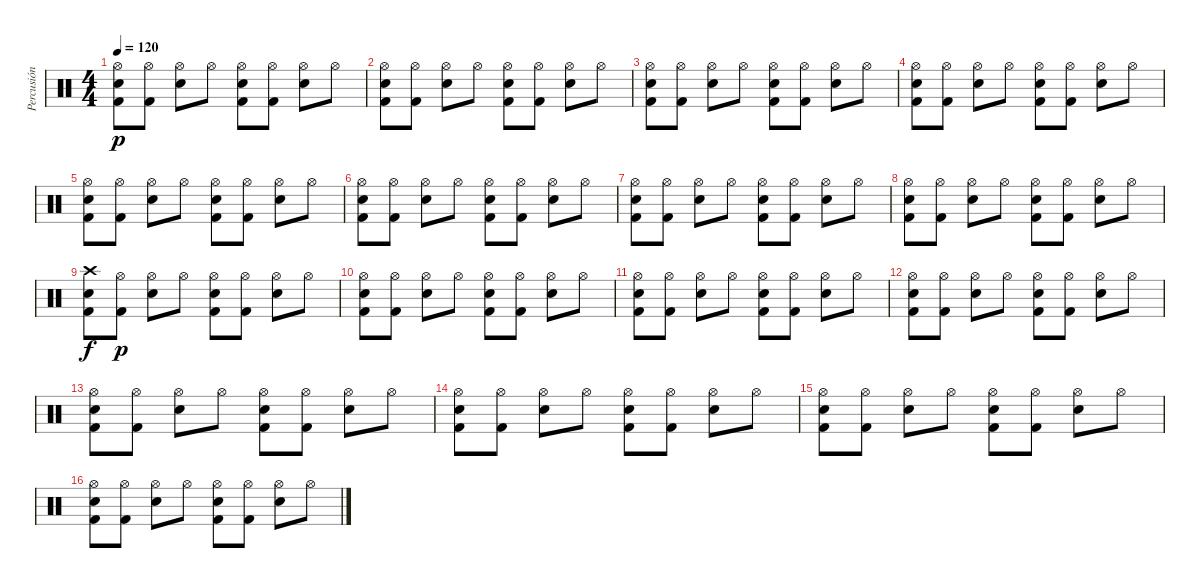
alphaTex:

\track ("Percusión" "Percusión") {instrument percussion}
\staff {score}
\articulation defaults
\ts (4 4)
\tempo 120
\clef neutral
\ks c
("Snare (hit) 2" "Hi-Hat (open)" "Kick (hit) 2").8{dy p} ("Hi-Hat (open)" "Kick (hit) 2").8 ("Snare (hit) 2" "Hi-Hat (open)").8 "Hi-Hat (open)".8 ("Snare (hit) 2" "Hi-Hat (open)" "Kick (hit) 2").8 ("Hi-Hat (open)" "Kick (hit) 2").8 ("Snare (hit) 2" "Hi-Hat (open)").8 "Hi-Hat (open)".8 |
("Snare (hit) 2" "Hi-Hat (open)" "Kick (hit) 2").8 ("Hi-Hat (open)" "Kick (hit) 2").8 ("Snare (hit) 2" "Hi-Hat (open)").8 "Hi-Hat (open)".8 ("Snare (hit) 2" "Hi-Hat (open)" "Kick (hit) 2").8 ("Hi-Hat (open)" "Kick (hit) 2").8 ("Snare (hit) 2" "Hi-Hat (open)").8 "Hi-Hat (open)".8 |
("Snare (hit) 2" "Hi-Hat (open)" "Kick (hit) 2").8 ("Hi-Hat (open)" "Kick (hit) 2").8 ("Snare (hit) 2" "Hi-Hat (open)").8 "Hi-Hat (open)".8 ("Snare (hit) 2" "Hi-Hat (open)" "Kick (hit) 2").8 ("Hi-Hat (open)" "Kick (hit) 2").8 ("Snare (hit) 2" "Hi-Hat (open)").8 "Hi-Hat (open)".8 |
("Snare (hit) 2" "Hi-Hat (open)" "Kick (hit) 2").8 ("Hi-Hat (open)" "Kick (hit) 2").8 ("Snare (hit) 2" "Hi-Hat (open)").8 "Hi-Hat (open)".8 ("Snare (hit) 2" "Hi-Hat (open)" "Kick (hit) 2").8 ("Hi-Hat (open)" "Kick (hit) 2").8 ("Snare (hit) 2" "Hi-Hat (open)").8 "Hi-Hat (open)".8 |
("Snare (hit) 2" "Hi-Hat (open)" "Kick (hit) 2").8 ("Hi-Hat (open)" "Kick (hit) 2").8 ("Snare (hit) 2" "Hi-Hat (open)").8 "Hi-Hat (open)".8 ("Snare (hit) 2" "Hi-Hat (open)" "Kick (hit) 2").8 ("Hi-Hat (open)" "Kick (hit) 2").8 ("Snare (hit) 2" "Hi-Hat (open)").8 "Hi-Hat (open)".8 |
("Snare (hit) 2" "Hi-Hat (open)" "Kick (hit) 2").8 ("Hi-Hat (open)" "Kick (hit) 2").8 ("Snare (hit) 2" "Hi-Hat (open)").8 "Hi-Hat (open)".8 ("Snare (hit) 2" "Hi-Hat (open)" "Kick (hit) 2").8 ("Hi-Hat (open)" "Kick (hit) 2").8 ("Snare (hit) 2" "Hi-Hat (open)").8 "Hi-Hat (open)".8 |
("Snare (hit) 2" "Hi-Hat (open)" "Kick (hit) 2").8 ("Hi-Hat (open)" "Kick (hit) 2").8 ("Snare (hit) 2" "Hi-Hat (open)").8 "Hi-Hat (open)".8 ("Snare (hit) 2" "Hi-Hat (open)" "Kick (hit) 2").8 ("Hi-Hat (open)" "Kick (hit) 2").8 ("Snare (hit) 2" "Hi-Hat (open)").8 "Hi-Hat (open)".8 |
("Snare (hit) 2" "Hi-Hat (open)" "Kick (hit) 2").8 ("Hi-Hat (open)" "Kick (hit) 2").8 ("Snare (hit) 2" "Hi-Hat (open)").8 "Hi-Hat (open)".8 ("Snare (hit) 2" "Hi-Hat (open)" "Kick (hit) 2").8 ("Hi-Hat (open)" "Kick (hit) 2").8 ("Snare (hit) 2" "Hi-Hat (open)").8 "Hi-Hat (open)".8 |
("Snare (hit) 2" "Kick (hit) 2" "Crash high (hit)").8{dy f} ("Hi-Hat (open)" "Kick (hit) 2").8{dy p} ("Snare (hit) 2" "Hi-Hat (open)").8 "Hi-Hat (open)".8 ("Snare (hit) 2" "Hi-Hat (open)" "Kick (hit) 2").8 ("Hi-Hat (open)" "Kick (hit) 2").8 ("Snare (hit) 2" "Hi-Hat (open)").8 "Hi-Hat (open)".8 |
("Snare (hit) 2" "Hi-Hat (open)" "Kick (hit) 2").8 ("Hi-Hat (open)" "Kick (hit) 2").8 ("Snare (hit) 2" "Hi-Hat (open)").8 "Hi-Hat (open)".8 ("Snare (hit) 2" "Hi-Hat (open)" "Kick (hit) 2").8 ("Hi-Hat (open)" "Kick (hit) 2").8 ("Snare (hit) 2" "Hi-Hat (open)").8 "Hi-Hat (open)".8 |
("Snare (hit) 2" "Hi-Hat (open)" "Kick (hit) 2").8 ("Hi-Hat (open)" "Kick (hit) 2").8 ("Snare (hit) 2" "Hi-Hat (open)").8 "Hi-Hat (open)".8 ("Snare (hit) 2" "Hi-Hat (open)" "Kick (hit) 2").8 ("Hi-Hat (open)" "Kick (hit) 2").8 ("Snare (hit) 2" "Hi-Hat (open)").8 "Hi-Hat (open)".8 |
("Snare (hit) 2" "Hi-Hat (open)" "Kick (hit) 2").8 ("Hi-Hat (open)" "Kick (hit) 2").8 ("Snare (hit) 2" "Hi-Hat (open)").8 "Hi-Hat (open)".8 ("Snare (hit) 2" "Hi-Hat (open)" "Kick (hit) 2").8 ("Hi-Hat (open)" "Kick (hit) 2").8 ("Snare (hit) 2" "Hi-Hat (open)").8 "Hi-Hat (open)".8 |
("Snare (hit) 2" "Hi-Hat (open)" "Kick (hit) 2").8 ("Hi-Hat (open)" "Kick (hit) 2").8 ("Snare (hit) 2" "Hi-Hat (open)").8 "Hi-Hat (open)".8 ("Snare (hit) 2" "Hi-Hat (open)" "Kick (hit) 2").8 ("Hi-Hat (open)" "Kick (hit) 2").8 ("Snare (hit) 2" "Hi-Hat (open)").8 "Hi-Hat (open)".8 |
("Snare (hit) 2" "Hi-Hat (open)" "Kick (hit) 2").8 ("Hi-Hat (open)" "Kick (hit) 2").8 ("Snare (hit) 2" "Hi-Hat (open)").8 "Hi-Hat (open)".8 ("Snare (hit) 2" "Hi-Hat (open)" "Kick (hit) 2").8 ("Hi-Hat (open)" "Kick (hit) 2").8 ("Snare (hit) 2" "Hi-Hat (open)").8 "Hi-Hat (open)".8 |
("Snare (hit) 2" "Hi-Hat (open)" "Kick (hit) 2").8 ("Hi-Hat (open)" "Kick (hit) 2").8 ("Snare (hit) 2" "Hi-Hat (open)").8 "Hi-Hat (open)".8 ("Snare (hit) 2" "Hi-Hat (open)" "Kick (hit) 2").8 ("Hi-Hat (open)" "Kick (hit) 2").8 ("Snare (hit) 2" "Hi-Hat (open)").8 "Hi-Hat (open)".8 |
("Snare (hit) 2" "Hi-Hat (open)" "Kick (hit) 2").8 ("Hi-Hat (open)" "Kick (hit) 2").8 ("Snare (hit) 2" "Hi-Hat (open)").8 "Hi-Hat (open)".8 ("Snare (hit) 2" "Hi-Hat (open)" "Kick (hit) 2").8 ("Hi-Hat (open)" "Kick (hit) 2").8 ("Snare (hit) 2" "Hi-Hat (open)").8 "Hi-Hat (open)".8
